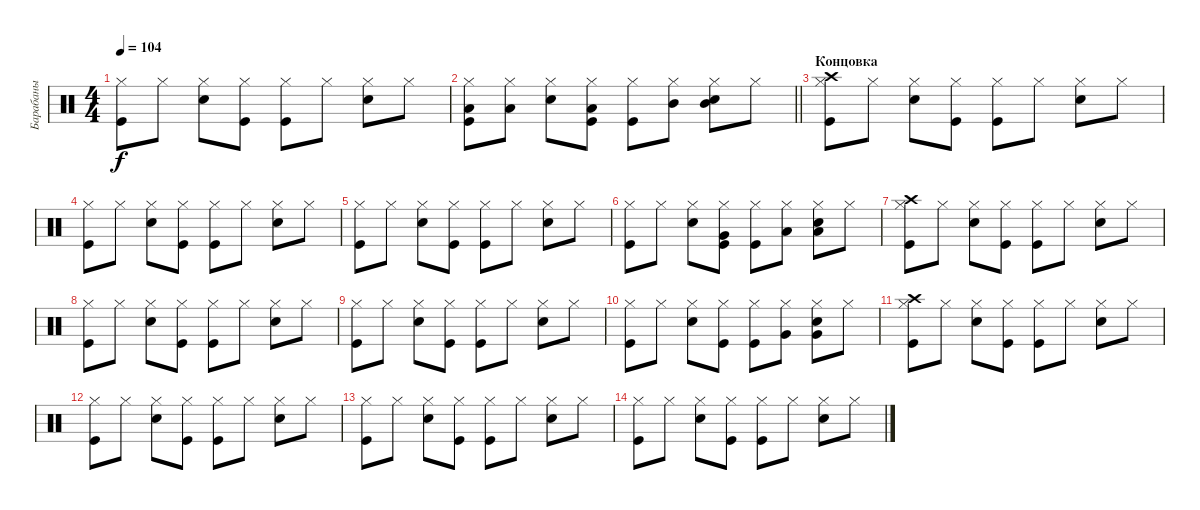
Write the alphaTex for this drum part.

\track ("Барабаны" "Барабаны") {instrument percussion}
\staff {score}
\articulation defaults
\ts (4 4)
\tempo 104
\clef neutral
\ks c
("Kick (hit)" "Hi-Hat (closed)").8{dy f} "Hi-Hat (closed)".8 ("Snare (hit) 2" "Hi-Hat (closed)").8 ("Kick (hit)" "Hi-Hat (closed)").8 ("Kick (hit)" "Hi-Hat (closed)").8 "Hi-Hat (closed)".8 ("Snare (hit) 2" "Hi-Hat (closed)").8 "Hi-Hat (closed)".8 |
\barLineRight lightlight
("Kick (hit)" "Hi-Hat (closed)" "Low Floor Tom (hit)").8 ("Hi-Hat (closed)" "Low Floor Tom (hit)").8 ("Snare (hit) 2" "Hi-Hat (closed)").8 ("Kick (hit)" "Hi-Hat (closed)" "Low Tom (hit)").8 ("Kick (hit)" "Hi-Hat (closed)").8 ("Hi-Hat (closed)" "Mid Tom (hit)").8 ("Snare (hit) 2" "Hi-Hat (closed)" "Mid Tom (hit)").8 "Hi-Hat (closed)".8 |
\section ("" "Концовка")
("Kick (hit)" "Hi-Hat (closed)" "Crash high (hit)").8 "Hi-Hat (closed)".8 ("Snare (hit) 2" "Hi-Hat (closed)").8 ("Kick (hit)" "Hi-Hat (closed)").8 ("Kick (hit)" "Hi-Hat (closed)").8 "Hi-Hat (closed)".8 ("Snare (hit) 2" "Hi-Hat (closed)").8 "Hi-Hat (closed)".8 |
("Kick (hit)" "Hi-Hat (closed)").8 "Hi-Hat (closed)".8 ("Snare (hit) 2" "Hi-Hat (closed)").8 ("Kick (hit)" "Hi-Hat (closed)").8 ("Kick (hit)" "Hi-Hat (closed)").8 "Hi-Hat (closed)".8 ("Snare (hit) 2" "Hi-Hat (closed)").8 "Hi-Hat (closed)".8 |
("Kick (hit)" "Hi-Hat (closed)").8 "Hi-Hat (closed)".8 ("Snare (hit) 2" "Hi-Hat (closed)").8 ("Kick (hit)" "Hi-Hat (closed)").8 ("Kick (hit)" "Hi-Hat (closed)").8 "Hi-Hat (closed)".8 ("Snare (hit) 2" "Hi-Hat (closed)").8 "Hi-Hat (closed)".8 |
("Kick (hit)" "Hi-Hat (closed)").8 "Hi-Hat (closed)".8 ("Snare (hit) 2" "Hi-Hat (closed)").8 ("Kick (hit)" "Hi-Hat (closed)" "Very Low Tom (hit)").8 ("Kick (hit)" "Hi-Hat (closed)").8 ("Hi-Hat (closed)" "Low Floor Tom (hit)").8 ("Snare (hit) 2" "Hi-Hat (closed)" "Low Floor Tom (hit)").8 "Hi-Hat (closed)".8 |
("Kick (hit)" "Hi-Hat (closed)" "Crash high (hit)").8 "Hi-Hat (closed)".8 ("Snare (hit) 2" "Hi-Hat (closed)").8 ("Kick (hit)" "Hi-Hat (closed)").8 ("Kick (hit)" "Hi-Hat (closed)").8 "Hi-Hat (closed)".8 ("Snare (hit) 2" "Hi-Hat (closed)").8 "Hi-Hat (closed)".8 |
("Kick (hit)" "Hi-Hat (closed)").8 "Hi-Hat (closed)".8 ("Snare (hit) 2" "Hi-Hat (closed)").8 ("Kick (hit)" "Hi-Hat (closed)").8 ("Kick (hit)" "Hi-Hat (closed)").8 "Hi-Hat (closed)".8 ("Snare (hit) 2" "Hi-Hat (closed)").8 "Hi-Hat (closed)".8 |
("Kick (hit)" "Hi-Hat (closed)").8 "Hi-Hat (closed)".8 ("Snare (hit) 2" "Hi-Hat (closed)").8 ("Kick (hit)" "Hi-Hat (closed)").8 ("Kick (hit)" "Hi-Hat (closed)").8 "Hi-Hat (closed)".8 ("Snare (hit) 2" "Hi-Hat (closed)").8 "Hi-Hat (closed)".8 |
("Kick (hit)" "Hi-Hat (closed)").8 "Hi-Hat (closed)".8 ("Snare (hit) 2" "Hi-Hat (closed)").8 ("Kick (hit)" "Hi-Hat (closed)").8 ("Kick (hit)" "Hi-Hat (closed)").8 ("Hi-Hat (closed)" "Very Low Tom (hit)").8 ("Snare (hit) 2" "Hi-Hat (closed)" "Very Low Tom (hit)").8 "Hi-Hat (closed)".8 |
("Kick (hit)" "Hi-Hat (closed)" "Crash high (hit)").8 "Hi-Hat (closed)".8 ("Snare (hit) 2" "Hi-Hat (closed)").8 ("Kick (hit)" "Hi-Hat (closed)").8 ("Kick (hit)" "Hi-Hat (closed)").8 "Hi-Hat (closed)".8 ("Snare (hit) 2" "Hi-Hat (closed)").8 "Hi-Hat (closed)".8 |
("Kick (hit)" "Hi-Hat (closed)").8 "Hi-Hat (closed)".8 ("Snare (hit) 2" "Hi-Hat (closed)").8 ("Kick (hit)" "Hi-Hat (closed)").8 ("Kick (hit)" "Hi-Hat (closed)").8 "Hi-Hat (closed)".8 ("Snare (hit) 2" "Hi-Hat (closed)").8 "Hi-Hat (closed)".8 |
("Kick (hit)" "Hi-Hat (closed)").8 "Hi-Hat (closed)".8 ("Snare (hit) 2" "Hi-Hat (closed)").8 ("Kick (hit)" "Hi-Hat (closed)").8 ("Kick (hit)" "Hi-Hat (closed)").8 "Hi-Hat (closed)".8 ("Snare (hit) 2" "Hi-Hat (closed)").8 "Hi-Hat (closed)".8 |
("Kick (hit)" "Hi-Hat (closed)").8 "Hi-Hat (closed)".8 ("Snare (hit) 2" "Hi-Hat (closed)").8 ("Kick (hit)" "Hi-Hat (closed)").8 ("Kick (hit)" "Hi-Hat (closed)").8 "Hi-Hat (closed)".8 ("Snare (hit) 2" "Hi-Hat (closed)").8 "Hi-Hat (closed)".8
